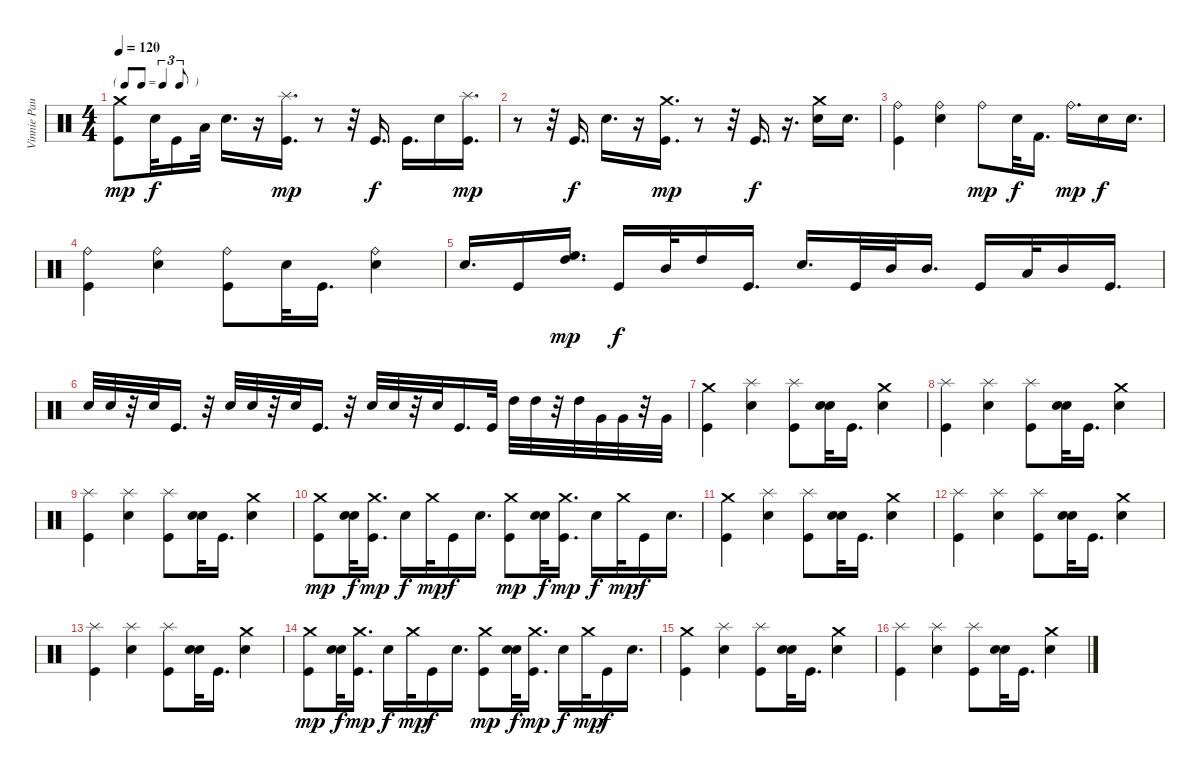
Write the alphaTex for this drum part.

\track ("Vinnie Paul" "Vinnie Pau") {instrument percussion}
\staff {score}
\articulation defaults
\ts (4 4)
\tf triplet8th
\tempo 120
\clef neutral
\ks c
("Crash medium (hit)" "Kick (hit)").8{dy mp} "Snare (hit)".32{dy f} "Kick (hit)".16 "Low Floor Tom (hit)".32 "Snare (hit) 2".16{d} r.16 ("Splash (hit)" "Kick (hit)").16{d dy mp} r.8 r.32 "Kick (hit)".16{d dy f} "Kick (hit)".16{d} "Snare (hit) 2".16 ("Splash (hit)" "Kick (hit)").16{d dy mp} |
r.8 r.32 "Kick (hit)".16{d dy f} "Snare (hit) 2".16{d} r.16 ("Crash medium (hit)" "Kick (hit)").16{d dy mp} r.8 r.32 "Kick (hit)".16{d dy f} r.16{d} ("Snare (hit) 2" "Crash medium (hit)").16 "Snare (hit) 2".16{d} |
("Kick (hit)" "Ride (bell)").4 ("Snare (hit) 2" "Ride (bell)").4 "Ride (bell)".8{dy mp} "Snare (hit)".32{dy f} "Kick (hit) 2".16{d} "Ride (bell)".16{d dy mp} "Snare (hit) 2".16{dy f} "Snare (hit) 2".16{d} |
("Kick (hit)" "Ride (bell)").4 ("Snare (hit) 2" "Ride (bell)").4 ("Kick (hit)" "Ride (bell)").8 "Snare (hit)".32 "Kick (hit)".16{d} ("Snare (hit) 2" "Ride (bell)").4 |
"Snare (hit) 2".16{d} "Kick (hit)".16 ("High Floor Tom (hit)" "High Tom (hit)").16{d dy mp} "Kick (hit)".16{dy f} "Mid Tom (hit)".32 "High Tom (hit)".16 "Kick (hit)".16{d} "Snare (hit) 2".16{d} "Kick (hit)".32 "Mid Tom (hit)".32 "Mid Tom (hit)".16{d} "Kick (hit)".16 "Low Tom (hit)".32 "Mid Tom (hit)".16 "Kick (hit)".16{d} |
"Snare (hit) 2".32 "Snare (hit) 2".32 r.32 "Snare (hit) 2".32 "Kick (hit)".16{d} r.32 "Snare (hit) 2".32 "Snare (hit) 2".32 r.32 "Snare (hit) 2".32 "Kick (hit)".16{d} r.32 "Snare (hit) 2".32 "Snare (hit) 2".32 r.32 "Snare (hit) 2".32 "Kick (hit)".16{d} "Kick (hit)".32 "High Tom (hit)".32 "High Tom (hit)".32 r.32 "High Tom (hit)".32 "Very Low Tom (hit)".32 "Very Low Tom (hit)".32 r.32 "Very Low Tom (hit)".32 |
("Kick (hit)" "Crash medium (hit)").4 ("Snare (hit) 2" "Splash (hit)").4 ("Kick (hit)" "Splash (hit)").8 ("Snare (hit)" "Snare (hit)").32 "Kick (hit)".16{d} ("Snare (hit) 2" "Crash medium (hit)").4 |
("Kick (hit)" "Splash (hit)").4 ("Snare (hit) 2" "Splash (hit)").4 ("Kick (hit)" "Splash (hit)").8 ("Snare (hit)" "Snare (hit)").32 "Kick (hit)".16{d} ("Snare (hit) 2" "Crash medium (hit)").4 |
("Kick (hit)" "Splash (hit)").4 ("Snare (hit) 2" "Splash (hit)").4 ("Kick (hit)" "Splash (hit)").8 ("Snare (hit)" "Snare (hit)").32 "Kick (hit)".16{d} ("Snare (hit) 2" "Crash medium (hit)").4 |
("Crash medium (hit)" "Kick (hit)").8{dy mp} ("Snare (hit)" "Snare (hit)").32{dy f} ("Crash medium (hit)" "Kick (hit)").16{d dy mp} "Snare (hit) 2".16{dy f} "Crash medium (hit)".32{dy mp} "Kick (hit)".16{dy f} "Snare (hit) 2".16{d} ("Crash medium (hit)" "Kick (hit)").8{dy mp} ("Snare (hit)" "Snare (hit)").32{dy f} ("Crash medium (hit)" "Kick (hit)").16{d dy mp} "Snare (hit) 2".16{dy f} "Crash medium (hit)".32{dy mp} "Kick (hit)".16{dy f} "Snare (hit) 2".16{d} |
("Kick (hit)" "Crash medium (hit)").4 ("Snare (hit) 2" "Splash (hit)").4 ("Kick (hit)" "Splash (hit)").8 ("Snare (hit)" "Snare (hit)").32 "Kick (hit)".16{d} ("Snare (hit) 2" "Crash medium (hit)").4 |
("Kick (hit)" "Splash (hit)").4 ("Snare (hit) 2" "Splash (hit)").4 ("Kick (hit)" "Splash (hit)").8 ("Snare (hit)" "Snare (hit)").32 "Kick (hit)".16{d} ("Snare (hit) 2" "Crash medium (hit)").4 |
("Kick (hit)" "Splash (hit)").4 ("Snare (hit) 2" "Splash (hit)").4 ("Kick (hit)" "Splash (hit)").8 ("Snare (hit)" "Snare (hit)").32 "Kick (hit)".16{d} ("Snare (hit) 2" "Crash medium (hit)").4 |
("Crash medium (hit)" "Kick (hit)").8{dy mp} ("Snare (hit)" "Snare (hit)").32{dy f} ("Crash medium (hit)" "Kick (hit)").16{d dy mp} "Snare (hit) 2".16{dy f} "Crash medium (hit)".32{dy mp} "Kick (hit)".16{dy f} "Snare (hit) 2".16{d} ("Crash medium (hit)" "Kick (hit)").8{dy mp} ("Snare (hit)" "Snare (hit)").32{dy f} ("Crash medium (hit)" "Kick (hit)").16{d dy mp} "Snare (hit) 2".16{dy f} "Crash medium (hit)".32{dy mp} "Kick (hit)".16{dy f} "Snare (hit) 2".16{d} |
("Kick (hit)" "Crash medium (hit)").4 ("Snare (hit) 2" "Splash (hit)").4 ("Kick (hit)" "Splash (hit)").8 ("Snare (hit)" "Snare (hit)").32 "Kick (hit)".16{d} ("Snare (hit) 2" "Crash medium (hit)").4 |
("Kick (hit)" "Splash (hit)").4 ("Snare (hit) 2" "Splash (hit)").4 ("Kick (hit)" "Splash (hit)").8 ("Snare (hit)" "Snare (hit)").32 "Kick (hit)".16{d} ("Snare (hit) 2" "Crash medium (hit)").4
